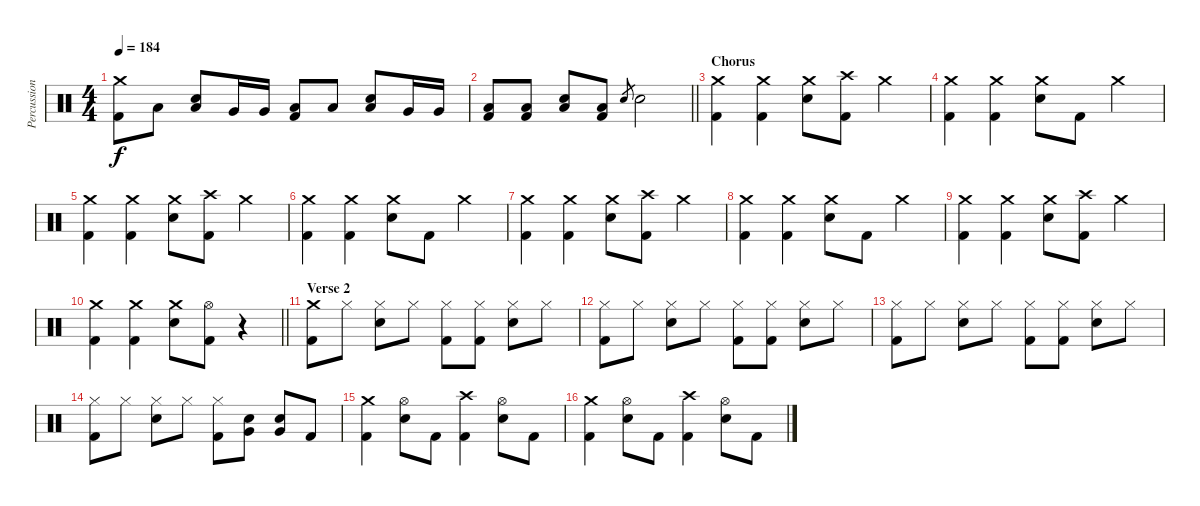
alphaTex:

\track ("Percussions" "Percussion") {instrument percussion}
\staff {score}
\articulation defaults
\ts (4 4)
\tempo 184
\clef neutral
\ks c
("Crash medium (hit)" "Kick (hit) 2").8{dy f} "Low Floor Tom (hit)".8 ("Low Floor Tom (hit)" "Electric Snare (hit)").8 "Very Low Tom (hit)".16 "Very Low Tom (hit)".16 ("Low Floor Tom (hit)" "Kick (hit) 2").8 "Low Floor Tom (hit)".8 ("Low Floor Tom (hit)" "Electric Snare (hit)").8 "Very Low Tom (hit)".16 "Very Low Tom (hit)".16 |
\barLineRight lightlight
("Low Floor Tom (hit)" "Kick (hit) 2").8 ("Low Floor Tom (hit)" "Kick (hit) 2").8 ("Low Floor Tom (hit)" "Electric Snare (hit)").8 ("Low Floor Tom (hit)" "Kick (hit) 2").8 "Electric Snare (hit)".8{gr} "Electric Snare (hit)".2 |
\section ("" "Chorus")
("Crash medium (hit)" "Kick (hit) 2").4 ("Crash medium (hit)" "Kick (hit) 2").4 ("Crash medium (hit)" "Electric Snare (hit)").8 ("Crash high (hit)" "Kick (hit) 2").8 "Crash medium (hit)".4 |
("Crash medium (hit)" "Kick (hit) 2").4 ("Crash medium (hit)" "Kick (hit) 2").4 ("Crash medium (hit)" "Electric Snare (hit)").8 "Kick (hit) 2".8 "Crash medium (hit)".4 |
("Crash medium (hit)" "Kick (hit) 2").4 ("Crash medium (hit)" "Kick (hit) 2").4 ("Crash medium (hit)" "Electric Snare (hit)").8 ("Crash high (hit)" "Kick (hit) 2").8 "Crash medium (hit)".4 |
("Crash medium (hit)" "Kick (hit) 2").4 ("Crash medium (hit)" "Kick (hit) 2").4 ("Crash medium (hit)" "Electric Snare (hit)").8 "Kick (hit) 2".8 "Crash medium (hit)".4 |
("Crash medium (hit)" "Kick (hit) 2").4 ("Crash medium (hit)" "Kick (hit) 2").4 ("Crash medium (hit)" "Electric Snare (hit)").8 ("Crash high (hit)" "Kick (hit) 2").8 "Crash medium (hit)".4 |
("Crash medium (hit)" "Kick (hit) 2").4 ("Crash medium (hit)" "Kick (hit) 2").4 ("Crash medium (hit)" "Electric Snare (hit)").8 "Kick (hit) 2".8 "Crash medium (hit)".4 |
("Crash medium (hit)" "Kick (hit) 2").4 ("Crash medium (hit)" "Kick (hit) 2").4 ("Crash medium (hit)" "Electric Snare (hit)").8 ("Crash high (hit)" "Kick (hit) 2").8 "Crash medium (hit)".4 |
\barLineRight lightlight
("Crash medium (hit)" "Kick (hit) 2").4 ("Crash medium (hit)" "Kick (hit) 2").4 ("Crash medium (hit)" "Electric Snare (hit)").8 ("Hi-Hat (open)" "Kick (hit) 2").8 r.4 |
\section ("" "Verse 2")
("Crash medium (hit)" "Kick (hit) 2").8 "Hi-Hat (closed)".8 ("Hi-Hat (closed)" "Electric Snare (hit)").8 "Hi-Hat (closed)".8 ("Hi-Hat (closed)" "Kick (hit) 2").8 ("Hi-Hat (closed)" "Kick (hit) 2").8 ("Hi-Hat (closed)" "Electric Snare (hit)").8 "Hi-Hat (closed)".8 |
("Hi-Hat (closed)" "Kick (hit) 2").8 "Hi-Hat (closed)".8 ("Hi-Hat (closed)" "Electric Snare (hit)").8 "Hi-Hat (closed)".8 ("Hi-Hat (closed)" "Kick (hit) 2").8 ("Hi-Hat (closed)" "Kick (hit) 2").8 ("Hi-Hat (closed)" "Electric Snare (hit)").8 "Hi-Hat (closed)".8 |
("Hi-Hat (closed)" "Kick (hit) 2").8 "Hi-Hat (closed)".8 ("Hi-Hat (closed)" "Electric Snare (hit)").8 "Hi-Hat (closed)".8 ("Hi-Hat (closed)" "Kick (hit) 2").8 ("Hi-Hat (closed)" "Kick (hit) 2").8 ("Hi-Hat (closed)" "Electric Snare (hit)").8 "Hi-Hat (closed)".8 |
("Hi-Hat (closed)" "Kick (hit) 2").8 "Hi-Hat (closed)".8 ("Hi-Hat (closed)" "Electric Snare (hit)").8 "Hi-Hat (closed)".8 ("Hi-Hat (closed)" "Kick (hit) 2").8 ("Very Low Tom (hit)" "Electric Snare (hit)").8 ("Very Low Tom (hit)" "Electric Snare (hit)").8 "Kick (hit) 2".8 |
("Crash medium (hit)" "Kick (hit) 2").4 ("Hi-Hat (open)" "Electric Snare (hit)").8 "Kick (hit) 2".8 ("Crash high (hit)" "Kick (hit) 2").4 ("Hi-Hat (open)" "Electric Snare (hit)").8 "Kick (hit) 2".8 |
("Crash medium (hit)" "Kick (hit) 2").4 ("Hi-Hat (open)" "Electric Snare (hit)").8 "Kick (hit) 2".8 ("Crash high (hit)" "Kick (hit) 2").4 ("Hi-Hat (open)" "Electric Snare (hit)").8 "Kick (hit) 2".8
